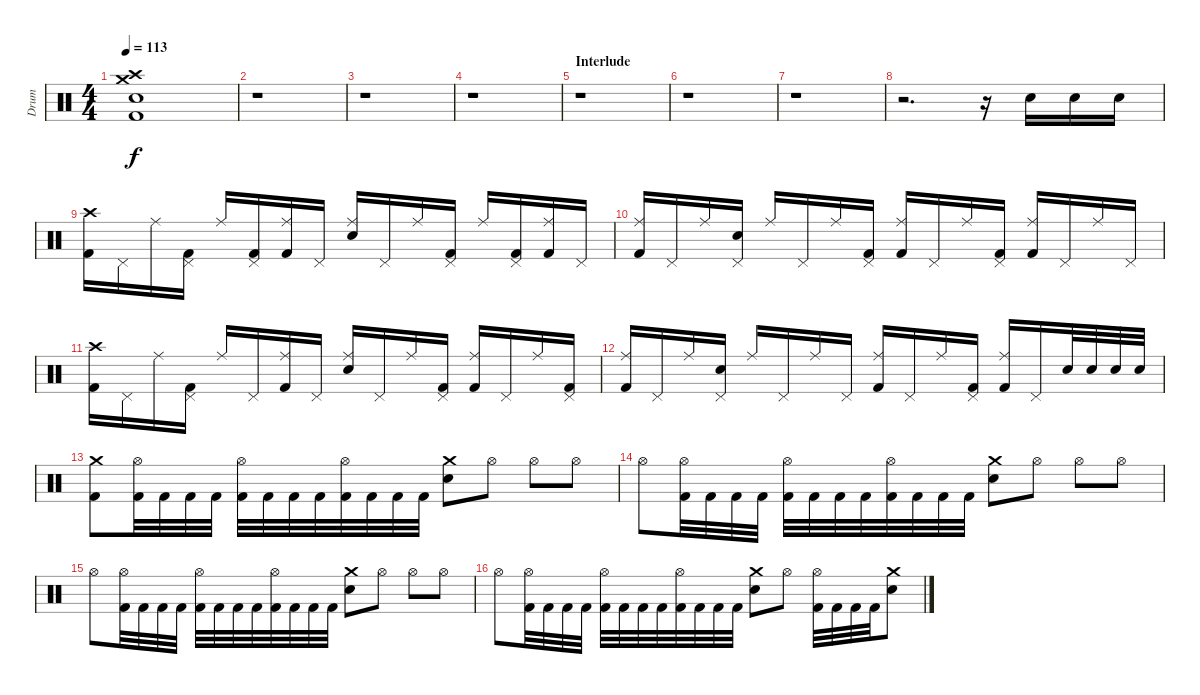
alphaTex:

\track ("Drum" "Drum") {instrument percussion}
\staff {score}
\articulation defaults
\ts (4 4)
\tempo 113
\clef neutral
\ks c
("Crash high (hit)" "Crash medium (hit)" "Electric Snare (hit)" "Kick (hit) 2").1{dy f} |
r.1 |
r.1 |
r.1 |
\section ("" "Interlude")
r.1 |
r.1 |
r.1 |
r.2{d} r.16 "Electric Snare (hit)".16 "Electric Snare (hit)".16 "Electric Snare (hit)".16 |
("Crash high (hit)" "Kick (hit) 2").16 "Pedal Hi-Hat (hit)".16 "Ride (middle)".16 ("Pedal Hi-Hat (hit)" "Kick (hit) 2").16 "Ride (middle)".16 ("Pedal Hi-Hat (hit)" "Kick (hit) 2").16 ("Ride (middle)" "Kick (hit) 2").16 "Pedal Hi-Hat (hit)".16 ("Ride (middle)" "Electric Snare (hit)").16 "Pedal Hi-Hat (hit)".16 "Ride (middle)".16 ("Pedal Hi-Hat (hit)" "Kick (hit) 2").16 "Ride (middle)".16 ("Pedal Hi-Hat (hit)" "Kick (hit) 2").16 ("Ride (middle)" "Kick (hit) 2").16 "Pedal Hi-Hat (hit)".16 |
("Ride (middle)" "Kick (hit) 2").16 "Pedal Hi-Hat (hit)".16 "Ride (middle)".16 ("Pedal Hi-Hat (hit)" "Electric Snare (hit)").16 "Ride (middle)".16 "Pedal Hi-Hat (hit)".16 "Ride (middle)".16 ("Pedal Hi-Hat (hit)" "Kick (hit) 2").16 ("Ride (middle)" "Kick (hit) 2").16 "Pedal Hi-Hat (hit)".16 "Ride (middle)".16 ("Pedal Hi-Hat (hit)" "Kick (hit) 2").16 ("Ride (middle)" "Kick (hit) 2").16 "Pedal Hi-Hat (hit)".16 "Ride (middle)".16 "Pedal Hi-Hat (hit)".16 |
("Crash high (hit)" "Kick (hit) 2").16 "Pedal Hi-Hat (hit)".16 "Ride (middle)".16 ("Pedal Hi-Hat (hit)" "Kick (hit) 2").16 "Ride (middle)".16 "Pedal Hi-Hat (hit)".16 ("Ride (middle)" "Kick (hit) 2").16 "Pedal Hi-Hat (hit)".16 ("Ride (middle)" "Electric Snare (hit)").16 "Pedal Hi-Hat (hit)".16 "Ride (middle)".16 ("Pedal Hi-Hat (hit)" "Kick (hit) 2").16 ("Ride (middle)" "Kick (hit) 2").16 "Pedal Hi-Hat (hit)".16 "Ride (middle)".16 ("Pedal Hi-Hat (hit)" "Kick (hit) 2").16 |
("Ride (middle)" "Kick (hit) 2").16 "Pedal Hi-Hat (hit)".16 "Ride (middle)".16 ("Pedal Hi-Hat (hit)" "Electric Snare (hit)").16 "Ride (middle)".16 "Pedal Hi-Hat (hit)".16 "Ride (middle)".16 "Pedal Hi-Hat (hit)".16 ("Ride (middle)" "Kick (hit) 2").16 "Pedal Hi-Hat (hit)".16 "Ride (middle)".16 ("Pedal Hi-Hat (hit)" "Kick (hit) 2").16 ("Ride (middle)" "Kick (hit) 2").16 "Pedal Hi-Hat (hit)".16 "Electric Snare (hit)".32 "Electric Snare (hit)".32 "Electric Snare (hit)".32 "Electric Snare (hit)".32 |
("Crash medium (hit)" "Kick (hit) 2").8 ("Hi-Hat (open)" "Kick (hit) 2").32 "Kick (hit) 2".32 "Kick (hit) 2".32 "Kick (hit) 2".32 ("Hi-Hat (open)" "Kick (hit) 2").32 "Kick (hit) 2".32 "Kick (hit) 2".32 "Kick (hit) 2".32 ("Hi-Hat (open)" "Kick (hit) 2").32 "Kick (hit) 2".32 "Kick (hit) 2".32 "Kick (hit) 2".32 ("Crash medium (hit)" "Electric Snare (hit)").8 "Hi-Hat (open)".8 "Hi-Hat (open)".8 "Hi-Hat (open)".8 |
"Hi-Hat (open)".8 ("Hi-Hat (open)" "Kick (hit) 2").32 "Kick (hit) 2".32 "Kick (hit) 2".32 "Kick (hit) 2".32 ("Hi-Hat (open)" "Kick (hit) 2").32 "Kick (hit) 2".32 "Kick (hit) 2".32 "Kick (hit) 2".32 ("Hi-Hat (open)" "Kick (hit) 2").32 "Kick (hit) 2".32 "Kick (hit) 2".32 "Kick (hit) 2".32 ("Crash medium (hit)" "Electric Snare (hit)").8 "Hi-Hat (open)".8 "Hi-Hat (open)".8 "Hi-Hat (open)".8 |
"Hi-Hat (open)".8 ("Hi-Hat (open)" "Kick (hit) 2").32 "Kick (hit) 2".32 "Kick (hit) 2".32 "Kick (hit) 2".32 ("Hi-Hat (open)" "Kick (hit) 2").32 "Kick (hit) 2".32 "Kick (hit) 2".32 "Kick (hit) 2".32 ("Hi-Hat (open)" "Kick (hit) 2").32 "Kick (hit) 2".32 "Kick (hit) 2".32 "Kick (hit) 2".32 ("Crash medium (hit)" "Electric Snare (hit)").8 "Hi-Hat (open)".8 "Hi-Hat (open)".8 "Hi-Hat (open)".8 |
"Hi-Hat (open)".8 ("Hi-Hat (open)" "Kick (hit) 2").32 "Kick (hit) 2".32 "Kick (hit) 2".32 "Kick (hit) 2".32 ("Hi-Hat (open)" "Kick (hit) 2").32 "Kick (hit) 2".32 "Kick (hit) 2".32 "Kick (hit) 2".32 ("Hi-Hat (open)" "Kick (hit) 2").32 "Kick (hit) 2".32 "Kick (hit) 2".32 "Kick (hit) 2".32 ("Crash medium (hit)" "Electric Snare (hit)").8 "Hi-Hat (open)".8 ("Hi-Hat (open)" "Kick (hit) 2").32 "Kick (hit) 2".32 "Kick (hit) 2".32 "Kick (hit) 2".32 ("Crash medium (hit)" "Electric Snare (hit)").8
